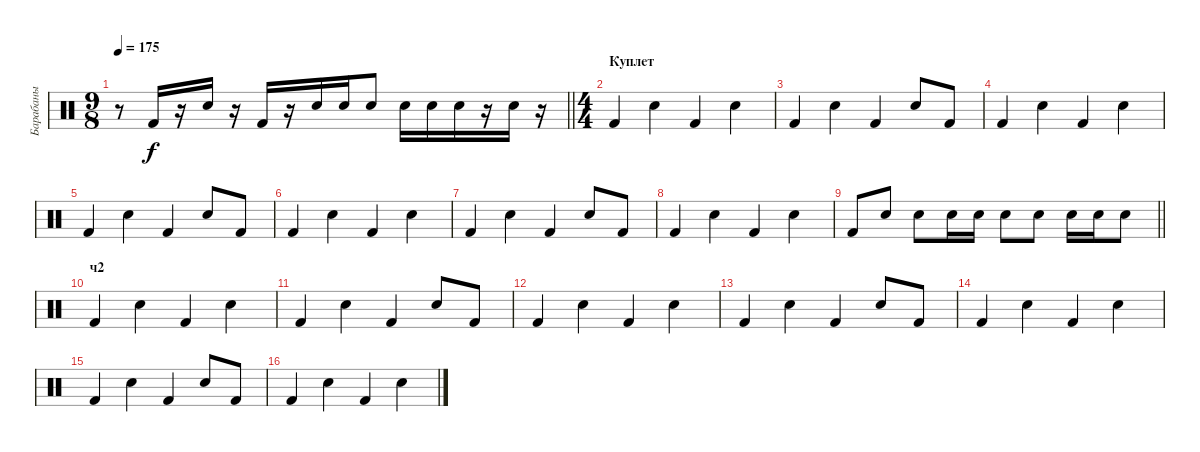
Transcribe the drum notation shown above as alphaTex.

\track ("Барабаны" "Барабаны") {instrument percussion}
\staff {score}
\articulation defaults
\ts (9 8)
\tempo 175
\clef neutral
\barLineRight lightlight
\ks c
r.8{dy f} "Kick (hit) 2".16 r.16 "Snare (hit) 2".16 r.16 "Kick (hit) 2".16 r.16 "Snare (hit) 2".16 "Snare (hit) 2".16 "Snare (hit) 2".8 "Snare (hit) 2".16 "Snare (hit) 2".16 "Snare (hit) 2".16 r.16 "Snare (hit) 2".16 r.16 |
\ts (4 4)
\section ("" "Куплет")
"Kick (hit) 2".4 "Snare (hit) 2".4 "Kick (hit) 2".4 "Snare (hit) 2".4 |
"Kick (hit) 2".4 "Snare (hit) 2".4 "Kick (hit) 2".4 "Snare (hit) 2".8 "Kick (hit) 2".8 |
"Kick (hit) 2".4 "Snare (hit) 2".4 "Kick (hit) 2".4 "Snare (hit) 2".4 |
"Kick (hit) 2".4 "Snare (hit) 2".4 "Kick (hit) 2".4 "Snare (hit) 2".8 "Kick (hit) 2".8 |
"Kick (hit) 2".4 "Snare (hit) 2".4 "Kick (hit) 2".4 "Snare (hit) 2".4 |
"Kick (hit) 2".4 "Snare (hit) 2".4 "Kick (hit) 2".4 "Snare (hit) 2".8 "Kick (hit) 2".8 |
"Kick (hit) 2".4 "Snare (hit) 2".4 "Kick (hit) 2".4 "Snare (hit) 2".4 |
\barLineRight lightlight "Kick (hit) 2".8 "Snare (hit) 2".8 "Snare (hit) 2".8 "Snare (hit) 2".16 "Snare (hit) 2".16 "Snare (hit) 2".8 "Snare (hit) 2".8 "Snare (hit) 2".16 "Snare (hit) 2".16 "Snare (hit) 2".8
|
\section ("" "ч2")
"Kick (hit) 2".4 "Snare (hit) 2".4 "Kick (hit) 2".4 "Snare (hit) 2".4 |
"Kick (hit) 2".4 "Snare (hit) 2".4 "Kick (hit) 2".4 "Snare (hit) 2".8 "Kick (hit) 2".8 |
"Kick (hit) 2".4 "Snare (hit) 2".4 "Kick (hit) 2".4 "Snare (hit) 2".4 |
"Kick (hit) 2".4 "Snare (hit) 2".4 "Kick (hit) 2".4 "Snare (hit) 2".8 "Kick (hit) 2".8 |
"Kick (hit) 2".4 "Snare (hit) 2".4 "Kick (hit) 2".4 "Snare (hit) 2".4 |
"Kick (hit) 2".4 "Snare (hit) 2".4 "Kick (hit) 2".4 "Snare (hit) 2".8 "Kick (hit) 2".8 |
"Kick (hit) 2".4 "Snare (hit) 2".4 "Kick (hit) 2".4 "Snare (hit) 2".4
